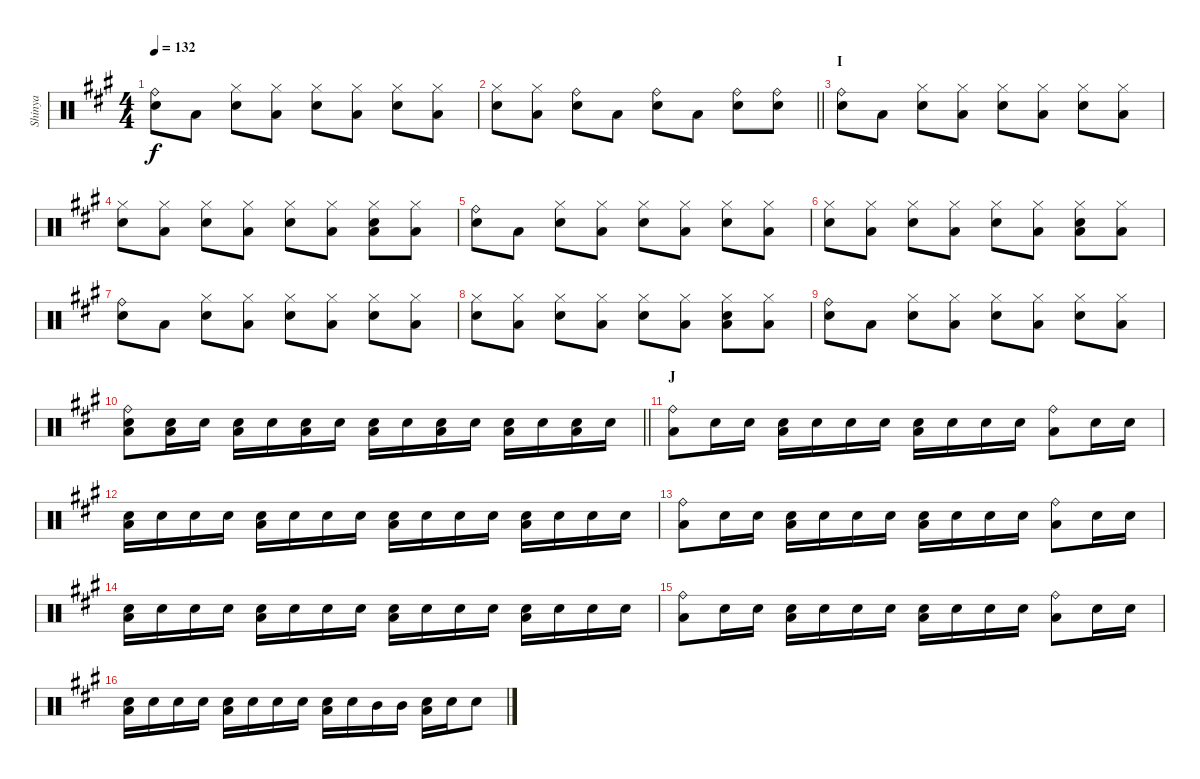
\track ("Shinya" "Shinya") {instrument percussion}
\staff {score}
\articulation defaults
\ts (4 4)
\tempo 132
\clef neutral
\ks a
("Ride (bell)" "Snare (hit) 2").8{dy f} "Low Floor Tom (hit)".8 ("Hi-Hat (closed)" "Snare (hit) 2").8 ("Low Floor Tom (hit)" "Hi-Hat (closed)").8 ("Hi-Hat (closed)" "Snare (hit) 2").8 ("Low Floor Tom (hit)" "Hi-Hat (closed)").8 ("Hi-Hat (closed)" "Snare (hit) 2").8 ("Low Floor Tom (hit)" "Hi-Hat (closed)").8 |
\barLineRight lightlight
("Hi-Hat (closed)" "Snare (hit) 2").8 ("Low Floor Tom (hit)" "Hi-Hat (closed)").8 ("Ride (bell)" "Snare (hit) 2").8 "Low Floor Tom (hit)".8 ("Ride (bell)" "Snare (hit) 2").8 "Low Floor Tom (hit)".8 ("Ride (bell)" "Snare (hit) 2").8 ("Ride (bell)" "Snare (hit) 2").8 |
\section ("" "I")
("Ride (bell)" "Snare (hit) 2").8 "Low Floor Tom (hit)".8 ("Hi-Hat (closed)" "Snare (hit) 2").8 ("Low Floor Tom (hit)" "Hi-Hat (closed)").8 ("Hi-Hat (closed)" "Snare (hit) 2").8 ("Low Floor Tom (hit)" "Hi-Hat (closed)").8 ("Hi-Hat (closed)" "Snare (hit) 2").8 ("Low Floor Tom (hit)" "Hi-Hat (closed)").8 |
("Hi-Hat (closed)" "Snare (hit) 2").8 ("Low Floor Tom (hit)" "Hi-Hat (closed)").8 ("Hi-Hat (closed)" "Snare (hit) 2").8 ("Low Floor Tom (hit)" "Hi-Hat (closed)").8 ("Hi-Hat (closed)" "Snare (hit) 2").8 ("Low Floor Tom (hit)" "Hi-Hat (closed)").8 ("Low Floor Tom (hit)" "Hi-Hat (closed)" "Snare (hit) 2").8 ("Low Floor Tom (hit)" "Hi-Hat (closed)").8 |
("Ride (bell)" "Snare (hit) 2").8 "Low Floor Tom (hit)".8 ("Hi-Hat (closed)" "Snare (hit) 2").8 ("Low Floor Tom (hit)" "Hi-Hat (closed)").8 ("Hi-Hat (closed)" "Snare (hit) 2").8 ("Low Floor Tom (hit)" "Hi-Hat (closed)").8 ("Hi-Hat (closed)" "Snare (hit) 2").8 ("Low Floor Tom (hit)" "Hi-Hat (closed)").8 |
("Hi-Hat (closed)" "Snare (hit) 2").8 ("Low Floor Tom (hit)" "Hi-Hat (closed)").8 ("Hi-Hat (closed)" "Snare (hit) 2").8 ("Low Floor Tom (hit)" "Hi-Hat (closed)").8 ("Hi-Hat (closed)" "Snare (hit) 2").8 ("Low Floor Tom (hit)" "Hi-Hat (closed)").8 ("Low Floor Tom (hit)" "Hi-Hat (closed)" "Snare (hit) 2").8 ("Low Floor Tom (hit)" "Hi-Hat (closed)").8 |
("Ride (bell)" "Snare (hit) 2").8 "Low Floor Tom (hit)".8 ("Hi-Hat (closed)" "Snare (hit) 2").8 ("Low Floor Tom (hit)" "Hi-Hat (closed)").8 ("Hi-Hat (closed)" "Snare (hit) 2").8 ("Low Floor Tom (hit)" "Hi-Hat (closed)").8 ("Hi-Hat (closed)" "Snare (hit) 2").8 ("Low Floor Tom (hit)" "Hi-Hat (closed)").8 |
("Hi-Hat (closed)" "Snare (hit) 2").8 ("Low Floor Tom (hit)" "Hi-Hat (closed)").8 ("Hi-Hat (closed)" "Snare (hit) 2").8 ("Low Floor Tom (hit)" "Hi-Hat (closed)").8 ("Hi-Hat (closed)" "Snare (hit) 2").8 ("Low Floor Tom (hit)" "Hi-Hat (closed)").8 ("Low Floor Tom (hit)" "Hi-Hat (closed)" "Snare (hit) 2").8 ("Low Floor Tom (hit)" "Hi-Hat (closed)").8 |
("Ride (bell)" "Snare (hit) 2").8 "Low Floor Tom (hit)".8 ("Hi-Hat (closed)" "Snare (hit) 2").8 ("Low Floor Tom (hit)" "Hi-Hat (closed)").8 ("Hi-Hat (closed)" "Snare (hit) 2").8 ("Low Floor Tom (hit)" "Hi-Hat (closed)").8 ("Hi-Hat (closed)" "Snare (hit) 2").8 ("Low Floor Tom (hit)" "Hi-Hat (closed)").8 |
\barLineRight lightlight
("Low Floor Tom (hit)" "Ride (bell)" "Snare (hit) 2").8 ("Low Floor Tom (hit)" "Snare (hit) 2").16 "Snare (hit) 2".16 ("Low Floor Tom (hit)" "Snare (hit) 2").16 "Snare (hit) 2".16 ("Low Floor Tom (hit)" "Snare (hit) 2").16 "Snare (hit) 2".16 ("Low Floor Tom (hit)" "Snare (hit) 2").16 "Snare (hit) 2".16 ("Low Floor Tom (hit)" "Snare (hit) 2").16 "Snare (hit) 2".16 ("Low Floor Tom (hit)" "Snare (hit) 2").16 "Snare (hit) 2".16 ("Low Floor Tom (hit)" "Snare (hit) 2").16 "Snare (hit) 2".16 |
\section ("" "J")
("Low Floor Tom (hit)" "Ride (bell)").8 "Snare (hit) 2".16 "Snare (hit) 2".16 ("Low Floor Tom (hit)" "Snare (hit) 2").16 "Snare (hit) 2".16 "Snare (hit) 2".16 "Snare (hit) 2".16 ("Low Floor Tom (hit)" "Snare (hit) 2").16 "Snare (hit) 2".16 "Snare (hit) 2".16 "Snare (hit) 2".16 ("Low Floor Tom (hit)" "Ride (bell)").8 "Snare (hit) 2".16 "Snare (hit) 2".16 |
("Low Floor Tom (hit)" "Snare (hit) 2").16 "Snare (hit) 2".16 "Snare (hit) 2".16 "Snare (hit) 2".16 ("Low Floor Tom (hit)" "Snare (hit) 2").16 "Snare (hit) 2".16 "Snare (hit) 2".16 "Snare (hit) 2".16 ("Low Floor Tom (hit)" "Snare (hit) 2").16 "Snare (hit) 2".16 "Snare (hit) 2".16 "Snare (hit) 2".16 ("Low Floor Tom (hit)" "Snare (hit) 2").16 "Snare (hit) 2".16 "Snare (hit) 2".16 "Snare (hit) 2".16 |
("Low Floor Tom (hit)" "Ride (bell)").8 "Snare (hit) 2".16 "Snare (hit) 2".16 ("Low Floor Tom (hit)" "Snare (hit) 2").16 "Snare (hit) 2".16 "Snare (hit) 2".16 "Snare (hit) 2".16 ("Low Floor Tom (hit)" "Snare (hit) 2").16 "Snare (hit) 2".16 "Snare (hit) 2".16 "Snare (hit) 2".16 ("Low Floor Tom (hit)" "Ride (bell)").8 "Snare (hit) 2".16 "Snare (hit) 2".16 |
("Low Floor Tom (hit)" "Snare (hit) 2").16 "Snare (hit) 2".16 "Snare (hit) 2".16 "Snare (hit) 2".16 ("Low Floor Tom (hit)" "Snare (hit) 2").16 "Snare (hit) 2".16 "Snare (hit) 2".16 "Snare (hit) 2".16 ("Low Floor Tom (hit)" "Snare (hit) 2").16 "Snare (hit) 2".16 "Snare (hit) 2".16 "Snare (hit) 2".16 ("Low Floor Tom (hit)" "Snare (hit) 2").16 "Snare (hit) 2".16 "Snare (hit) 2".16 "Snare (hit) 2".16 |
("Low Floor Tom (hit)" "Ride (bell)").8 "Snare (hit) 2".16 "Snare (hit) 2".16 ("Low Floor Tom (hit)" "Snare (hit) 2").16 "Snare (hit) 2".16 "Snare (hit) 2".16 "Snare (hit) 2".16 ("Low Floor Tom (hit)" "Snare (hit) 2").16 "Snare (hit) 2".16 "Snare (hit) 2".16 "Snare (hit) 2".16 ("Low Floor Tom (hit)" "Ride (bell)").8 "Snare (hit) 2".16 "Snare (hit) 2".16 |
("Low Floor Tom (hit)" "Snare (hit) 2").16 "Snare (hit) 2".16 "Snare (hit) 2".16 "Snare (hit) 2".16 ("Low Floor Tom (hit)" "Snare (hit) 2").16 "Snare (hit) 2".16 "Snare (hit) 2".16 "Snare (hit) 2".16 ("Low Floor Tom (hit)" "Snare (hit) 2").16 "Snare (hit) 2".16 "Mid Tom (hit)".16 "Mid Tom (hit)".16 ("Low Floor Tom (hit)" "Snare (hit) 2").16 "Snare (hit) 2".16 "Snare (hit) 2".8
